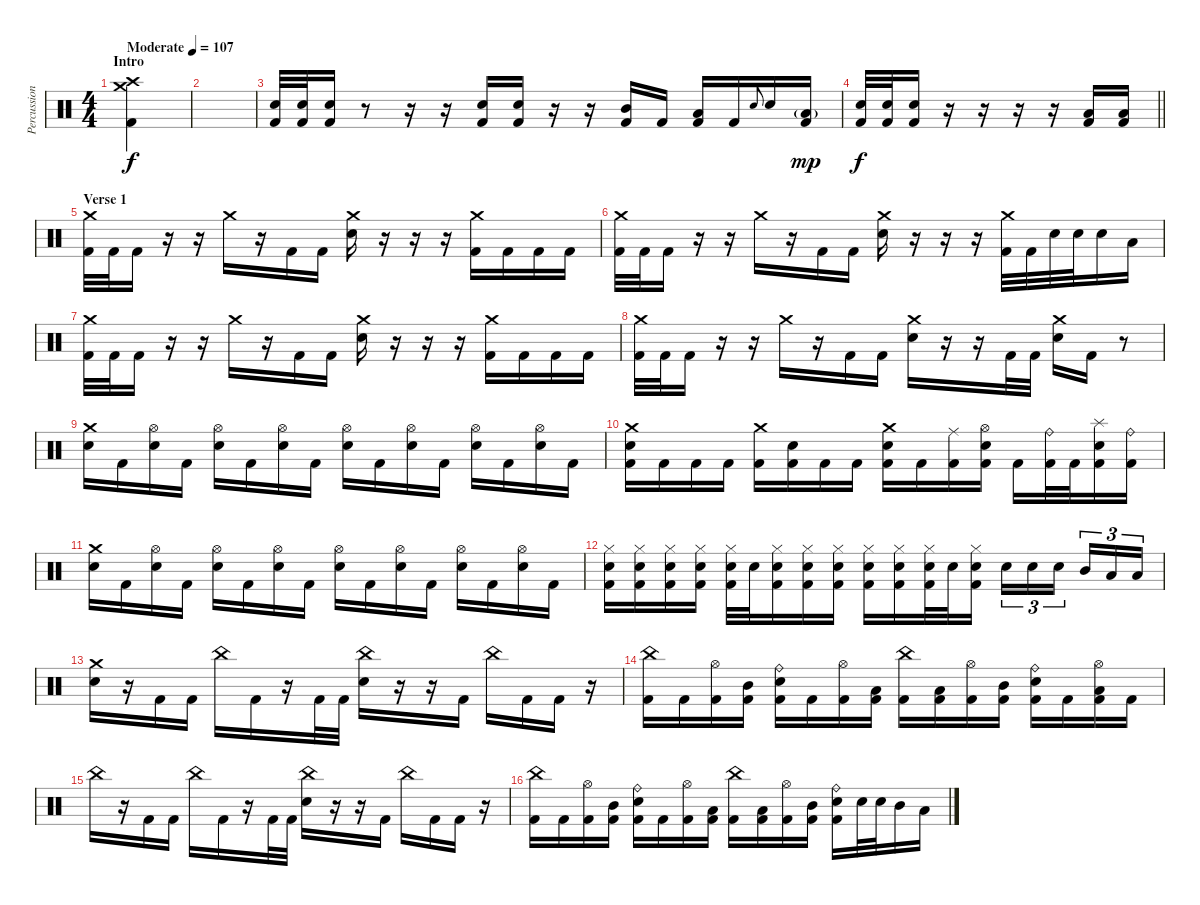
\track ("Percussion" "Percussion") {instrument percussion}
\staff {score}
\articulation defaults
\ts (4 4)
\section ("" "Intro")
\tempo (107 "Moderate")
\clef neutral
\ks c
("Crash high (hit)" "Crash medium (hit)" "Kick (hit) 2").4{dy f} |
|
("Electric Snare (hit)" "Kick (hit) 2").32 ("Electric Snare (hit)" "Kick (hit) 2").32 ("Electric Snare (hit)" "Kick (hit) 2").16 r.8 r.16 r.16 ("Electric Snare (hit)" "Kick (hit) 2").16 ("Electric Snare (hit)" "Kick (hit) 2").16 r.16 r.16 ("Mid Tom (hit)" "Kick (hit) 2").16 "Kick (hit) 2".16 ("Low Floor Tom (hit)" "Kick (hit) 2").16 "Kick (hit) 2".16 "Electric Snare (hit)".8{gr onbeat} "Electric Snare (hit)".16 ("Low Floor Tom (hit)"{g} "Kick (hit) 2").16{dy mp} |
\barLineRight lightlight
("Electric Snare (hit)" "Kick (hit) 2").32{dy f} ("Electric Snare (hit)" "Kick (hit) 2").32 ("Electric Snare (hit)" "Kick (hit) 2").16 r.16 r.16 r.16 r.16 ("Low Floor Tom (hit)" "Kick (hit) 2").16 ("Low Floor Tom (hit)" "Kick (hit) 2").16 |
\section ("" "Verse 1")
("Crash medium (hit)" "Kick (hit) 2").32 "Kick (hit) 2".32 "Kick (hit) 2".16 r.16 r.16 "Crash medium (hit)".16 r.16 "Kick (hit) 2".16 "Kick (hit) 2".16 ("Crash medium (hit)" "Electric Snare (hit)").16 r.16 r.16 r.16 ("Crash medium (hit)" "Kick (hit) 2").16 "Kick (hit) 2".16 "Kick (hit) 2".16 "Kick (hit) 2".16 |
("Crash medium (hit)" "Kick (hit) 2").32 "Kick (hit) 2".32 "Kick (hit) 2".16 r.16 r.16 "Crash medium (hit)".16 r.16 "Kick (hit) 2".16 "Kick (hit) 2".16 ("Crash medium (hit)" "Electric Snare (hit)").16 r.16 r.16 r.16 ("Crash medium (hit)" "Kick (hit) 2").32 "Kick (hit) 2".32 "Electric Snare (hit)".32 "Electric Snare (hit)".32 "Electric Snare (hit)".16 "Low Floor Tom (hit)".16 |
("Crash medium (hit)" "Kick (hit) 2").32 "Kick (hit) 2".32 "Kick (hit) 2".16 r.16 r.16 "Crash medium (hit)".16 r.16 "Kick (hit) 2".16 "Kick (hit) 2".16 ("Crash medium (hit)" "Electric Snare (hit)").16 r.16 r.16 r.16 ("Crash medium (hit)" "Kick (hit) 2").16 "Kick (hit) 2".16 "Kick (hit) 2".16 "Kick (hit) 2".16 |
("Crash medium (hit)" "Kick (hit) 2").32 "Kick (hit) 2".32 "Kick (hit) 2".16 r.16 r.16 "Crash medium (hit)".16 r.16 "Kick (hit) 2".16 "Kick (hit) 2".16 ("Crash medium (hit)" "Electric Snare (hit)").16 r.16 r.16 "Kick (hit) 2".32 "Kick (hit) 2".32 ("Crash medium (hit)" "Electric Snare (hit)").16 "Kick (hit) 2".16 r.8 |
("Crash medium (hit)" "Electric Snare (hit)").16 "Kick (hit) 2".16 ("Hi-Hat (open)" "Electric Snare (hit)").16 "Kick (hit) 2".16 ("Hi-Hat (open)" "Electric Snare (hit)").16 "Kick (hit) 2".16 ("Hi-Hat (open)" "Electric Snare (hit)").16 "Kick (hit) 2".16 ("Hi-Hat (open)" "Electric Snare (hit)").16 "Kick (hit) 2".16 ("Hi-Hat (open)" "Electric Snare (hit)").16 "Kick (hit) 2".16 ("Hi-Hat (open)" "Electric Snare (hit)").16 "Kick (hit) 2".16 ("Hi-Hat (open)" "Electric Snare (hit)").16 "Kick (hit) 2".16 |
("Crash medium (hit)" "Electric Snare (hit)" "Kick (hit) 2").16 "Kick (hit) 2".16 "Kick (hit) 2".16 "Kick (hit) 2".16 ("Crash medium (hit)" "Kick (hit) 2").16 ("Electric Snare (hit)" "Kick (hit) 2").16 "Kick (hit) 2".16 "Kick (hit) 2".16 ("Crash medium (hit)" "Electric Snare (hit)" "Kick (hit) 2").16 "Kick (hit) 2".16 ("Ride (middle)" "Kick (hit) 2").16 ("Hi-Hat (open)" "Electric Snare (hit)" "Kick (hit) 2").16 "Kick (hit) 2".16 ("Ride (bell)" "Kick (hit) 2").32 "Kick (hit) 2".32 ("Splash (hit)" "Electric Snare (hit)" "Kick (hit) 2").16 ("Ride (bell)" "Kick (hit) 2").16 |
("Crash medium (hit)" "Electric Snare (hit)").16 "Kick (hit) 2".16 ("Hi-Hat (open)" "Electric Snare (hit)").16 "Kick (hit) 2".16 ("Hi-Hat (open)" "Electric Snare (hit)").16 "Kick (hit) 2".16 ("Hi-Hat (open)" "Electric Snare (hit)").16 "Kick (hit) 2".16 ("Hi-Hat (open)" "Electric Snare (hit)").16 "Kick (hit) 2".16 ("Hi-Hat (open)" "Electric Snare (hit)").16 "Kick (hit) 2".16 ("Hi-Hat (open)" "Electric Snare (hit)").16 "Kick (hit) 2".16 ("Hi-Hat (open)" "Electric Snare (hit)").16 "Kick (hit) 2".16 |
("Hi-Hat (closed)" "Electric Snare (hit)" "Kick (hit) 2").16 ("Hi-Hat (closed)" "Electric Snare (hit)" "Kick (hit) 2").16 ("Hi-Hat (closed)" "Electric Snare (hit)" "Kick (hit) 2").16 ("Hi-Hat (closed)" "Electric Snare (hit)" "Kick (hit) 2").16 ("Hi-Hat (closed)" "Electric Snare (hit)" "Kick (hit) 2").32 "Electric Snare (hit)".32 ("Hi-Hat (closed)" "Electric Snare (hit)" "Kick (hit) 2").16 ("Hi-Hat (closed)" "Electric Snare (hit)" "Kick (hit) 2").16 ("Hi-Hat (closed)" "Electric Snare (hit)" "Kick (hit) 2").16 ("Hi-Hat (closed)" "Electric Snare (hit)" "Kick (hit) 2").16 ("Hi-Hat (closed)" "Electric Snare (hit)" "Kick (hit) 2").16 ("Hi-Hat (closed)" "Electric Snare (hit)" "Kick (hit) 2").32 "Electric Snare (hit)".32 ("Hi-Hat (closed)" "Electric Snare (hit)" "Kick (hit) 2").16 "Electric Snare (hit)".16{tu (3 2)} "Electric Snare (hit)".16{tu (3 2)} "Electric Snare (hit)".16{tu (3 2) beam splitsecondary} "Mid Tom (hit)".16{tu (3 2)} "Low Floor Tom (hit)".16{tu (3 2)} "Low Floor Tom (hit)".16{tu (3 2)} |
("Crash medium (hit)" "Electric Snare (hit)").16 r.16 "Kick (hit) 2".16 "Kick (hit) 2".16 "China (hit)".16 "Kick (hit) 2".16 r.16 "Kick (hit) 2".32 "Kick (hit) 2".32 ("China (hit)" "Electric Snare (hit)").16 r.16 r.16 "Kick (hit) 2".16 "China (hit)".16 "Kick (hit) 2".16 "Kick (hit) 2".16 r.16 |
("China (hit)" "Kick (hit) 2").16 "Kick (hit) 2".16 ("Hi-Hat (open)" "Kick (hit) 2").16 ("Mid Tom (hit)" "Kick (hit) 2").16 ("Ride (bell)" "Electric Snare (hit)" "Kick (hit) 2").16 "Kick (hit) 2".16 ("Hi-Hat (open)" "Kick (hit) 2").16 ("Low Floor Tom (hit)" "Kick (hit) 2").16 ("China (hit)" "Kick (hit) 2").16 ("Low Floor Tom (hit)" "Kick (hit) 2").16 ("Hi-Hat (open)" "Kick (hit) 2").16 ("Mid Tom (hit)" "Kick (hit) 2").16 ("Ride (bell)" "Electric Snare (hit)" "Kick (hit) 2").16 "Kick (hit) 2".16 ("Hi-Hat (open)" "Low Floor Tom (hit)" "Kick (hit) 2").16 "Kick (hit) 2".16 |
"China (hit)".16 r.16 "Kick (hit) 2".16 "Kick (hit) 2".16 "China (hit)".16 "Kick (hit) 2".16 r.16 "Kick (hit) 2".32 "Kick (hit) 2".32 ("China (hit)" "Electric Snare (hit)").16 r.16 r.16 "Kick (hit) 2".16 "China (hit)".16 "Kick (hit) 2".16 "Kick (hit) 2".16 r.16 |
("China (hit)" "Kick (hit) 2").16 "Kick (hit) 2".16 ("Hi-Hat (open)" "Kick (hit) 2").16 ("Mid Tom (hit)" "Kick (hit) 2").16 ("Ride (bell)" "Electric Snare (hit)" "Kick (hit) 2").16 "Kick (hit) 2".16 ("Hi-Hat (open)" "Kick (hit) 2").16 ("Low Floor Tom (hit)" "Kick (hit) 2").16 ("China (hit)" "Kick (hit) 2").16 ("Low Floor Tom (hit)" "Kick (hit) 2").16 ("Hi-Hat (open)" "Kick (hit) 2").16 ("Mid Tom (hit)" "Kick (hit) 2").16 ("Ride (bell)" "Electric Snare (hit)" "Kick (hit) 2").16 "Electric Snare (hit)".32 "Electric Snare (hit)".32 "Mid Tom (hit)".16 "Low Floor Tom (hit)".16
